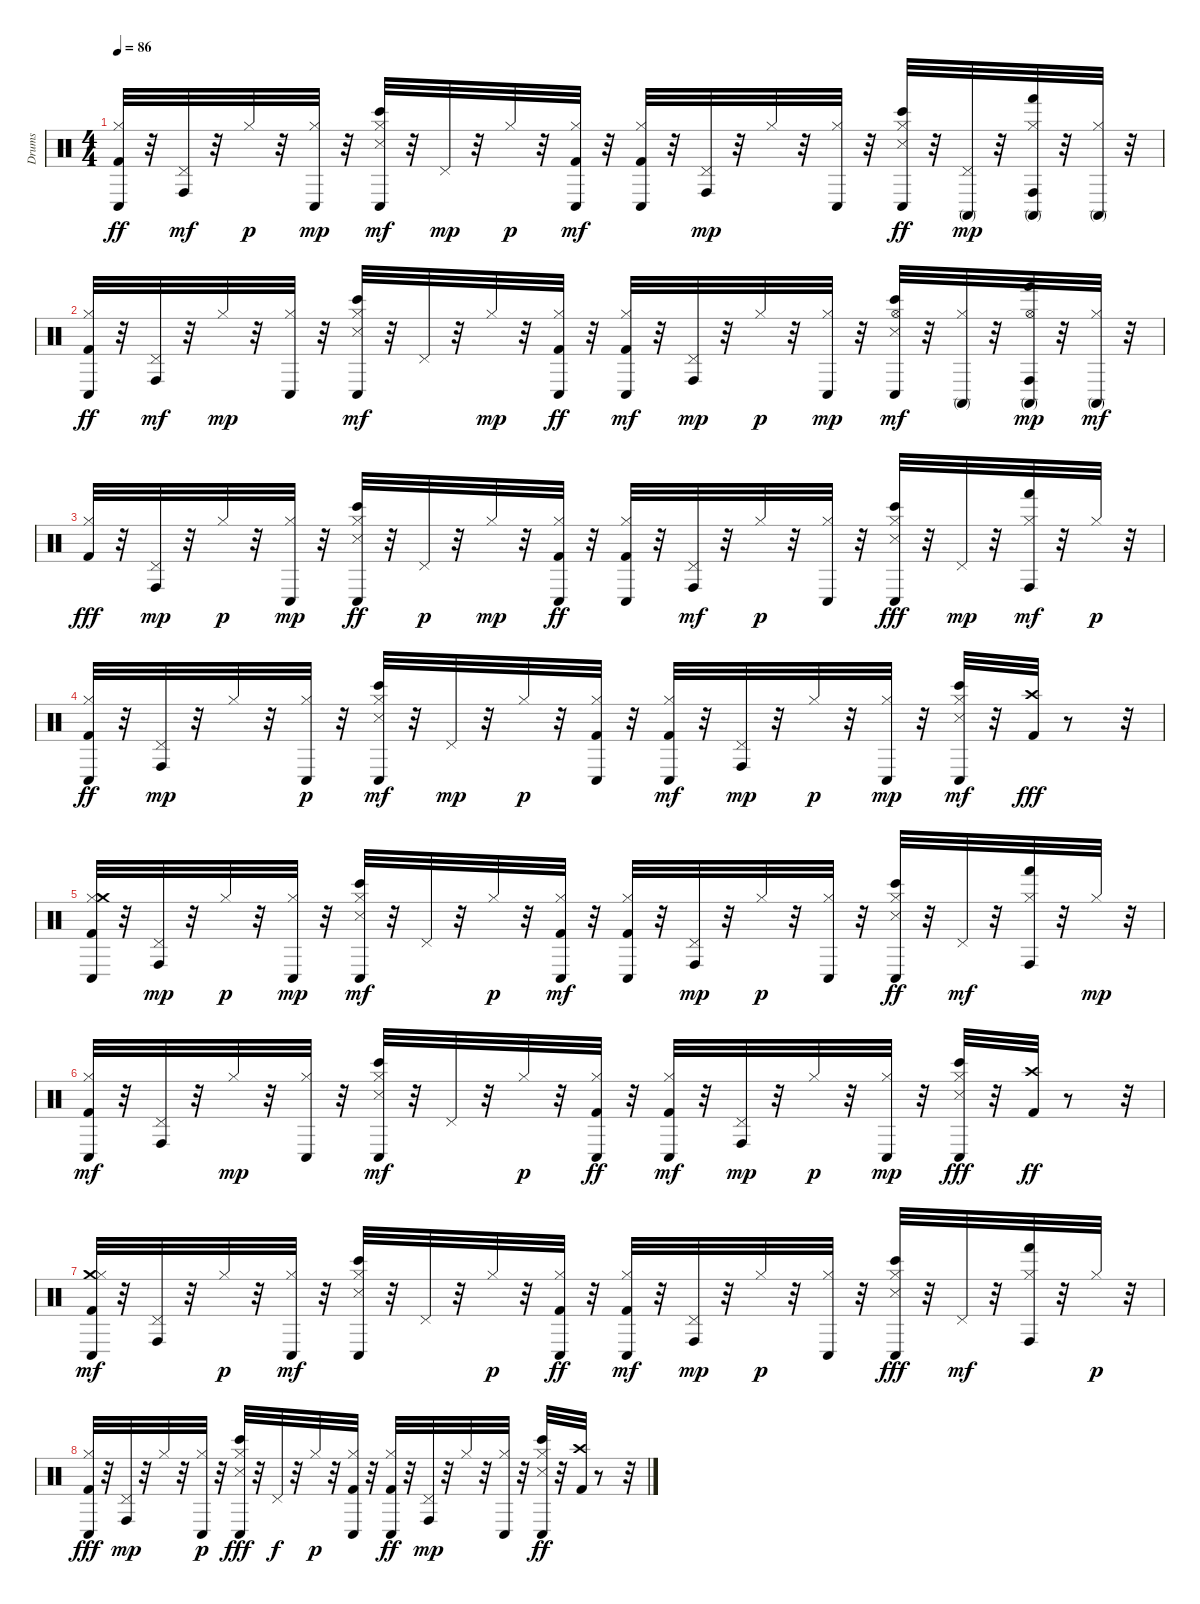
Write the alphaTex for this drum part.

\track ("Drums" "Drums") {instrument percussion}
\staff {score}
\articulation defaults
\ts (4 4)
\tempo 86
\clef neutral
\ks c
("Conga low (hit)" "Kick (hit) 2" "Hi-Hat (closed)").32{dy ff} r.32 ("Conga high (hit)" "Pedal Hi-Hat (hit)").32{dy mf} r.32 "Hi-Hat (closed)".32{dy p} r.32 ("Conga low (hit)" "Hi-Hat (closed)").32{dy mp} r.32 ("Snare (side stick) 3" "Bongo High (hit)" "Conga low (hit)" "Hi-Hat (closed)").32{dy mf} r.32 "Pedal Hi-Hat (hit)".32{dy mp} r.32 "Hi-Hat (closed)".32{dy p} r.32 ("Conga low (hit)" "Hi-Hat (closed)" "Kick (hit) 2").32{dy mf} r.32 ("Conga low (hit)" "Hi-Hat (closed)" "Kick (hit) 2").32 r.32 ("Conga high (hit)" "Pedal Hi-Hat (hit)").32{dy mp} r.32 "Hi-Hat (closed)".32 r.32 ("Conga low (hit)" "Hi-Hat (closed)").32 r.32 ("Conga low (hit)" "Bongo High (hit)" "Snare (side stick) 3" "Hi-Hat (closed)").32{dy ff} r.32 ("Conga high (mute)" "Pedal Hi-Hat (hit)").32{dy mp} r.32 ("Conga high (hit)" "Conga high (mute)" "Hi-Hat (closed)" "Hand (hit)").32 r.32 ("Conga high (mute)" "Hi-Hat (closed)").32 r.32 |
("Conga low (hit)" "Kick (hit) 2" "Hi-Hat (closed)").32{dy ff} r.32 ("Conga high (hit)" "Pedal Hi-Hat (hit)").32{dy mf} r.32 "Hi-Hat (closed)".32{dy mp} r.32 ("Conga low (hit)" "Hi-Hat (closed)").32 r.32 ("Conga low (hit)" "Snare (side stick) 3" "Hi-Hat (closed)" "Bongo High (hit)").32{dy mf} r.32 "Pedal Hi-Hat (hit)".32 r.32 "Hi-Hat (closed)".32{dy mp} r.32 ("Hi-Hat (closed)" "Conga low (hit)" "Kick (hit) 2").32{dy ff} r.32 ("Conga low (hit)" "Hi-Hat (closed)" "Kick (hit) 2").32{dy mf} r.32 ("Conga high (hit)" "Pedal Hi-Hat (hit)").32{dy mp} r.32 "Hi-Hat (closed)".32{dy p} r.32 ("Conga low (hit)" "Hi-Hat (closed)").32{dy mp} r.32 ("Bongo High (hit)" "Conga low (hit)" "Snare (side stick) 3" "Hi-Hat (open)").32{dy mf} r.32 ("Hi-Hat (closed)" "Conga high (mute)").32 r.32 ("Conga high (hit)" "Hi-Hat (open)" "Conga high (mute)" "Hand (hit)").32{dy mp} r.32 ("Conga high (mute)" "Hi-Hat (closed)").32{dy mf} r.32 |
("Kick (hit) 2" "Hi-Hat (closed)").32{dy fff} r.32 ("Conga high (hit)" "Pedal Hi-Hat (hit)").32{dy mp} r.32 "Hi-Hat (closed)".32{dy p} r.32 ("Conga low (hit)" "Hi-Hat (closed)").32{dy mp} r.32 ("Snare (side stick) 3" "Bongo High (hit)" "Conga low (hit)" "Hi-Hat (closed)").32{dy ff} r.32 "Pedal Hi-Hat (hit)".32{dy p} r.32 "Hi-Hat (closed)".32{dy mp} r.32 ("Hi-Hat (closed)" "Conga low (hit)" "Kick (hit) 2").32{dy ff} r.32 ("Conga low (hit)" "Kick (hit) 2" "Hi-Hat (closed)").32 r.32 ("Conga high (hit)" "Pedal Hi-Hat (hit)").32{dy mf} r.32 "Hi-Hat (closed)".32{dy p} r.32 ("Conga low (hit)" "Hi-Hat (closed)").32 r.32 ("Bongo High (hit)" "Hi-Hat (closed)" "Conga low (hit)" "Snare (side stick) 3").32{dy fff} r.32 "Pedal Hi-Hat (hit)".32{dy mp} r.32 ("Hi-Hat (closed)" "Conga high (hit)" "Hand (hit)").32{dy mf} r.32 "Hi-Hat (closed)".32{dy p} r.32 |
("Hi-Hat (closed)" "Kick (hit) 2" "Conga low (hit)").32{dy ff} r.32 ("Pedal Hi-Hat (hit)" "Conga high (hit)").32{dy mp} r.32 "Hi-Hat (closed)".32 r.32 ("Conga low (hit)" "Hi-Hat (closed)").32{dy p} r.32 ("Snare (side stick) 3" "Hi-Hat (closed)" "Conga low (hit)" "Bongo High (hit)").32{dy mf} r.32 "Pedal Hi-Hat (hit)".32{dy mp} r.32 "Hi-Hat (closed)".32{dy p} r.32 ("Kick (hit) 2" "Conga low (hit)" "Hi-Hat (closed)").32 r.32 ("Hi-Hat (closed)" "Kick (hit) 2" "Conga low (hit)").32{dy mf} r.32 ("Pedal Hi-Hat (hit)" "Conga high (hit)").32{dy mp} r.32 "Hi-Hat (closed)".32{dy p} r.32 ("Conga low (hit)" "Hi-Hat (closed)").32{dy mp} r.32 ("Bongo High (hit)" "Snare (side stick) 3" "Conga low (hit)" "Hi-Hat (closed)").32{dy mf} r.32 ("Crash high (hit)" "Kick (hit) 2").32{dy fff} r.8 r.32 |
("Hi-Hat (closed)" "Conga low (hit)" "Crash medium (hit)" "Kick (hit) 2").32 r.32 ("Conga high (hit)" "Pedal Hi-Hat (hit)").32{dy mp} r.32 "Hi-Hat (closed)".32{dy p} r.32 ("Conga low (hit)" "Hi-Hat (closed)").32{dy mp} r.32 ("Hi-Hat (closed)" "Snare (side stick) 3" "Bongo High (hit)" "Conga low (hit)").32{dy mf} r.32 "Pedal Hi-Hat (hit)".32 r.32 "Hi-Hat (closed)".32{dy p} r.32 ("Hi-Hat (closed)" "Conga low (hit)" "Kick (hit) 2").32{dy mf} r.32 ("Kick (hit) 2" "Hi-Hat (closed)" "Conga low (hit)").32 r.32 ("Pedal Hi-Hat (hit)" "Conga high (hit)").32{dy mp} r.32 "Hi-Hat (closed)".32{dy p} r.32 ("Conga low (hit)" "Hi-Hat (closed)").32 r.32 ("Bongo High (hit)" "Snare (side stick) 3" "Conga low (hit)" "Hi-Hat (closed)").32{dy ff} r.32 "Pedal Hi-Hat (hit)".32{dy mf} r.32 ("Conga high (hit)" "Hi-Hat (closed)" "Hand (hit)").32 r.32 "Hi-Hat (closed)".32{dy mp} r.32 |
("Kick (hit) 2" "Hi-Hat (closed)" "Conga low (hit)").32{dy mf} r.32 ("Pedal Hi-Hat (hit)" "Conga high (hit)").32 r.32 "Hi-Hat (closed)".32{dy mp} r.32 ("Conga low (hit)" "Hi-Hat (closed)").32 r.32 ("Conga low (hit)" "Hi-Hat (closed)" "Snare (side stick) 3" "Bongo High (hit)").32{dy mf} r.32 "Pedal Hi-Hat (hit)".32 r.32 "Hi-Hat (closed)".32{dy p} r.32 ("Hi-Hat (closed)" "Conga low (hit)" "Kick (hit) 2").32{dy ff} r.32 ("Kick (hit) 2" "Hi-Hat (closed)" "Conga low (hit)").32{dy mf} r.32 ("Conga high (hit)" "Pedal Hi-Hat (hit)").32{dy mp} r.32 "Hi-Hat (closed)".32{dy p} r.32 ("Conga low (hit)" "Hi-Hat (closed)").32{dy mp} r.32 ("Bongo High (hit)" "Hi-Hat (closed)" "Conga low (hit)" "Snare (side stick) 3").32{dy fff} r.32 ("Crash high (hit)" "Kick (hit) 2").32{dy ff} r.8 r.32 |
("Crash medium (hit)" "Kick (hit) 2" "Hi-Hat (closed)" "Conga low (hit)").32{dy mf} r.32 ("Pedal Hi-Hat (hit)" "Conga high (hit)").32 r.32 "Hi-Hat (closed)".32{dy p} r.32 ("Hi-Hat (closed)" "Conga low (hit)").32{dy mf} r.32 ("Snare (side stick) 3" "Bongo High (hit)" "Conga low (hit)" "Hi-Hat (closed)").32 r.32 "Pedal Hi-Hat (hit)".32 r.32 "Hi-Hat (closed)".32{dy p} r.32 ("Hi-Hat (closed)" "Conga low (hit)" "Kick (hit) 2").32{dy ff} r.32 ("Hi-Hat (closed)" "Conga low (hit)" "Kick (hit) 2").32{dy mf} r.32 ("Conga high (hit)" "Pedal Hi-Hat (hit)").32{dy mp} r.32 "Hi-Hat (closed)".32{dy p} r.32 ("Conga low (hit)" "Hi-Hat (closed)").32 r.32 ("Conga low (hit)" "Hi-Hat (closed)" "Bongo High (hit)" "Snare (side stick) 3").32{dy fff} r.32 "Pedal Hi-Hat (hit)".32{dy mf} r.32 ("Conga high (hit)" "Hi-Hat (closed)" "Hand (hit)").32 r.32 "Hi-Hat (closed)".32{dy p} r.32 |
("Conga low (hit)" "Hi-Hat (closed)" "Kick (hit) 2").32{dy fff} r.32 ("Pedal Hi-Hat (hit)" "Conga high (hit)").32{dy mp} r.32 "Hi-Hat (closed)".32 r.32 ("Conga low (hit)" "Hi-Hat (closed)").32{dy p} r.32 ("Bongo High (hit)" "Conga low (hit)" "Hi-Hat (closed)" "Snare (side stick) 3").32{dy fff} r.32 "Pedal Hi-Hat (hit)".32{dy f} r.32 "Hi-Hat (closed)".32{dy p} r.32 ("Conga low (hit)" "Kick (hit) 2" "Hi-Hat (closed)").32 r.32 ("Conga low (hit)" "Kick (hit) 2" "Hi-Hat (closed)").32{dy ff} r.32 ("Pedal Hi-Hat (hit)" "Conga high (hit)").32{dy mp} r.32 "Hi-Hat (closed)".32 r.32 ("Conga low (hit)" "Hi-Hat (closed)").32 r.32 ("Snare (side stick) 3" "Bongo High (hit)" "Conga low (hit)" "Hi-Hat (closed)").32{dy ff} r.32 ("Crash high (hit)" "Kick (hit) 2").32 r.8 r.32
